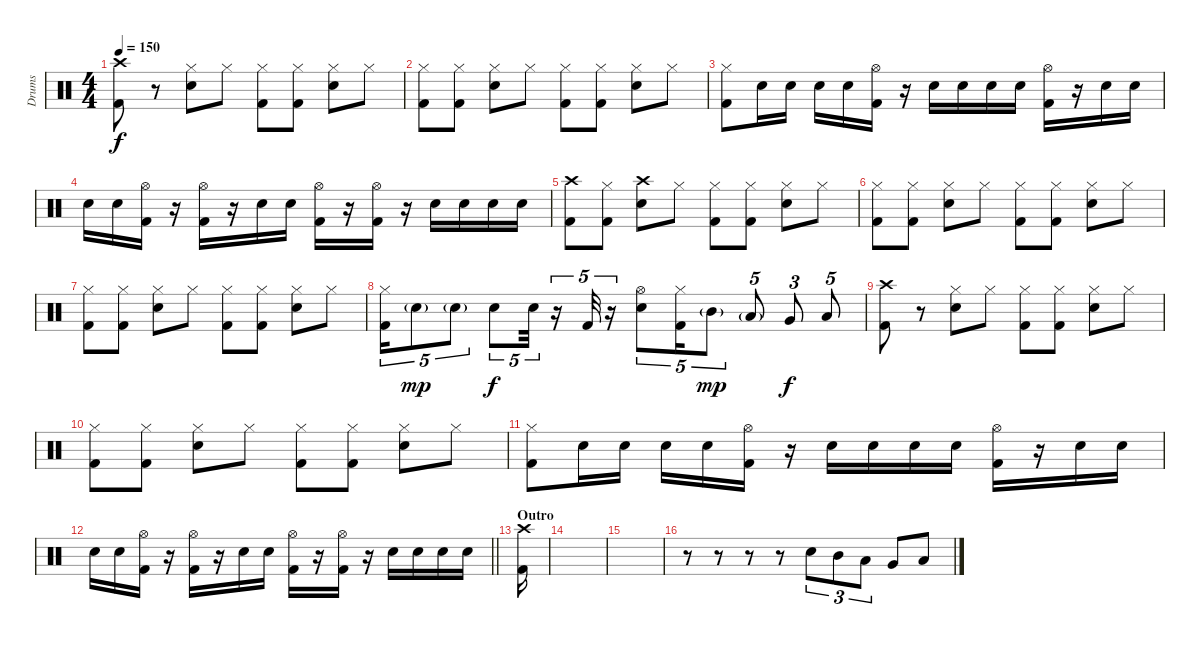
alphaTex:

\track ("Drums" "Drums") {instrument percussion}
\staff {score}
\articulation defaults
\ts (4 4)
\tempo 150
\clef neutral
\ks c
("Crash high (hit)" "Kick (hit) 2").8{dy f} r.8 ("Hi-Hat (closed)" "Snare (hit) 2").8 "Hi-Hat (closed)".8 ("Hi-Hat (closed)" "Kick (hit) 2").8 ("Hi-Hat (closed)" "Kick (hit) 2").8 ("Hi-Hat (closed)" "Snare (hit) 2").8 "Hi-Hat (closed)".8 |
("Hi-Hat (closed)" "Kick (hit) 2").8 ("Hi-Hat (closed)" "Kick (hit) 2").8 ("Hi-Hat (closed)" "Snare (hit) 2").8 "Hi-Hat (closed)".8 ("Hi-Hat (closed)" "Kick (hit) 2").8 ("Hi-Hat (closed)" "Kick (hit) 2").8 ("Hi-Hat (closed)" "Snare (hit) 2").8 "Hi-Hat (closed)".8 |
("Hi-Hat (closed)" "Kick (hit) 2").8 "Snare (hit) 2".16 "Snare (hit) 2".16 "Snare (hit) 2".16 "Snare (hit) 2".16 ("Hi-Hat (open)" "Kick (hit) 2").16 r.16 "Snare (hit) 2".16 "Snare (hit) 2".16 "Snare (hit) 2".16 "Snare (hit) 2".16 ("Hi-Hat (open)" "Kick (hit) 2").16 r.16 "Snare (hit) 2".16 "Snare (hit) 2".16 |
"Snare (hit) 2".16 "Snare (hit) 2".16 ("Hi-Hat (open)" "Kick (hit) 2").16 r.16 ("Hi-Hat (open)" "Kick (hit) 2").16 r.16 "Snare (hit) 2".16 "Snare (hit) 2".16 ("Hi-Hat (open)" "Kick (hit) 2").16 r.16 ("Hi-Hat (open)" "Kick (hit) 2").16 r.16 "Snare (hit) 2".16 "Snare (hit) 2".16 "Snare (hit) 2".16 "Snare (hit) 2".16 |
("Crash high (hit)" "Kick (hit) 2").8 ("Hi-Hat (closed)" "Kick (hit) 2").8 ("Crash high (hit)" "Snare (hit) 2").8 "Hi-Hat (closed)".8 ("Hi-Hat (closed)" "Kick (hit) 2").8 ("Hi-Hat (closed)" "Kick (hit) 2").8 ("Hi-Hat (closed)" "Snare (hit) 2").8 "Hi-Hat (closed)".8 |
("Hi-Hat (closed)" "Kick (hit) 2").8 ("Hi-Hat (closed)" "Kick (hit) 2").8 ("Hi-Hat (closed)" "Snare (hit) 2").8 "Hi-Hat (closed)".8 ("Hi-Hat (closed)" "Kick (hit) 2").8 ("Hi-Hat (closed)" "Kick (hit) 2").8 ("Hi-Hat (closed)" "Snare (hit) 2").8 "Hi-Hat (closed)".8 |
("Hi-Hat (closed)" "Kick (hit) 2").8 ("Hi-Hat (closed)" "Kick (hit) 2").8 ("Hi-Hat (closed)" "Snare (hit) 2").8 "Hi-Hat (closed)".8 ("Hi-Hat (closed)" "Kick (hit) 2").8 ("Hi-Hat (closed)" "Kick (hit) 2").8 ("Hi-Hat (closed)" "Snare (hit) 2").8 "Hi-Hat (closed)".8 |
("Hi-Hat (closed)" "Kick (hit) 2").16{tu (5 4)} "Snare (hit) 2"{g}.8{tu (5 4) dy mp} "Snare (hit) 2"{g}.8{tu (5 4)} "Snare (hit) 2".8{tu (5 4) dy f} "Snare (hit) 2".32{tu (5 4)} r.16{tu (5 4)} "Kick (hit) 2".32{tu (5 4)} r.16{tu (5 4)} ("Hi-Hat (open)" "Snare (hit) 2").8{tu (5 4)} ("Hi-Hat (closed)" "Kick (hit) 2").16{tu (5 4)} "Mid Tom (hit)"{g}.8{tu (5 4) dy mp} "Low Tom (hit)"{g}.8{tu (5 4)} "Very Low Tom (hit)".8{tu (3 2) dy f} "Low Floor Tom (hit)".8{tu (5 4)} |
("Crash high (hit)" "Kick (hit) 2").8 r.8 ("Hi-Hat (closed)" "Snare (hit) 2").8 "Hi-Hat (closed)".8 ("Hi-Hat (closed)" "Kick (hit) 2").8 ("Hi-Hat (closed)" "Kick (hit) 2").8 ("Hi-Hat (closed)" "Snare (hit) 2").8 "Hi-Hat (closed)".8 |
("Hi-Hat (closed)" "Kick (hit) 2").8 ("Hi-Hat (closed)" "Kick (hit) 2").8 ("Hi-Hat (closed)" "Snare (hit) 2").8 "Hi-Hat (closed)".8 ("Hi-Hat (closed)" "Kick (hit) 2").8 ("Hi-Hat (closed)" "Kick (hit) 2").8 ("Hi-Hat (closed)" "Snare (hit) 2").8 "Hi-Hat (closed)".8 |
("Hi-Hat (closed)" "Kick (hit) 2").8 "Snare (hit) 2".16 "Snare (hit) 2".16 "Snare (hit) 2".16 "Snare (hit) 2".16 ("Hi-Hat (open)" "Kick (hit) 2").16 r.16 "Snare (hit) 2".16 "Snare (hit) 2".16 "Snare (hit) 2".16 "Snare (hit) 2".16 ("Hi-Hat (open)" "Kick (hit) 2").16 r.16 "Snare (hit) 2".16 "Snare (hit) 2".16 |
\barLineRight lightlight "Snare (hit) 2".16 "Snare (hit) 2".16
("Hi-Hat (open)" "Kick (hit) 2").16 r.16 ("Hi-Hat (open)" "Kick (hit) 2").16 r.16 "Snare (hit) 2".16 "Snare (hit) 2".16 ("Hi-Hat (open)" "Kick (hit) 2").16 r.16 ("Hi-Hat (open)" "Kick (hit) 2").16 r.16 "Snare (hit) 2".16 "Snare (hit) 2".16 "Snare (hit) 2".16 "Snare (hit) 2".16 |
\section ("" "Outro")
("Crash high (hit)" "Kick (hit) 2").16 |
|
|
r.8 r.8 r.8 r.8 "Snare (hit) 2".8{tu (3 2)} "Mid Tom (hit)".8{tu (3 2)} "Low Tom (hit)".8{tu (3 2)} "Very Low Tom (hit)".8 "Low Tom (hit)".8
